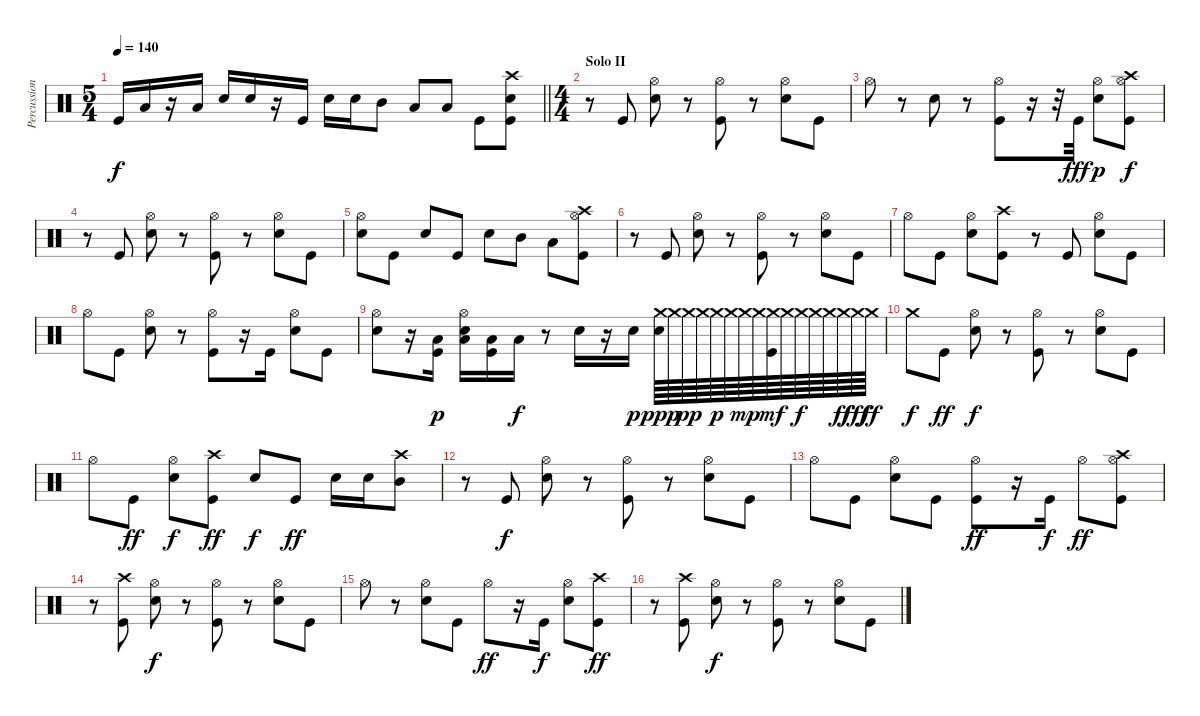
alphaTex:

\track ("Percussion" "Percussion") {instrument percussion}
\staff {score}
\articulation defaults
\ts (5 4)
\tempo 140
\clef neutral
\barLineRight lightlight
\ks c "Kick (hit)".16{dy f} "Low Tom (hit)".16
r.16 "Low Tom (hit)".16 "Snare (hit) 2".16 "Snare (hit) 2".16 r.16 "Kick (hit)".16 "Snare (hit) 2".16 "Snare (hit) 2".16 "Mid Tom (hit)".8 "Low Tom (hit)".8 "Low Floor Tom (hit)".8 "Kick (hit)".8 ("Crash high (hit)" "Snare (hit) 2" "Kick (hit)").8 |
\ts (4 4)
\section ("" "Solo II")
r.8 "Kick (hit)".8 ("Hi-Hat (open)" "Snare (hit) 2").8 r.8 ("Hi-Hat (open)" "Kick (hit)").8 r.8 ("Hi-Hat (open)" "Snare (hit) 2").8 "Kick (hit)".8 |
"Hi-Hat (open)".8 r.8 "Snare (hit) 2".8 r.8 ("Hi-Hat (open)" "Kick (hit)").8 r.16 r.32 "Kick (hit)".32{dy fff} ("Hi-Hat (open)" "Snare (hit) 2").8{dy p} ("Crash high (hit)" "Hi-Hat (open)" "Kick (hit)").8{dy f} |
r.8 "Kick (hit)".8 ("Hi-Hat (open)" "Snare (hit) 2").8 r.8 ("Hi-Hat (open)" "Kick (hit)").8 r.8 ("Hi-Hat (open)" "Snare (hit) 2").8 "Kick (hit)".8 |
("Hi-Hat (open)" "Snare (hit) 2").8 "Kick (hit)".8 "Snare (hit) 2".8 "Kick (hit)".8 "Snare (hit) 2".8 "Mid Tom (hit)".8 "Low Tom (hit)".8 ("Crash high (hit)" "Hi-Hat (open)" "Kick (hit)").8 |
r.8 "Kick (hit)".8 ("Hi-Hat (open)" "Snare (hit) 2").8 r.8 ("Hi-Hat (open)" "Kick (hit)").8 r.8 ("Hi-Hat (open)" "Snare (hit) 2").8 "Kick (hit)".8 |
"Hi-Hat (open)".8 "Kick (hit)".8 ("Hi-Hat (open)" "Snare (hit) 2").8 ("Crash high (hit)" "Kick (hit)").8 r.8 "Kick (hit)".8 ("Hi-Hat (open)" "Snare (hit) 2").8 "Kick (hit)".8 |
"Hi-Hat (open)".8 "Kick (hit)".8 ("Hi-Hat (open)" "Snare (hit) 2").8 r.8 ("Hi-Hat (open)" "Kick (hit)").8 r.16 "Kick (hit)".16 ("Hi-Hat (open)" "Snare (hit) 2").8 "Kick (hit)".8 |
("Hi-Hat (open)" "Snare (hit) 2").8 r.16 ("Low Tom (hit)" "Kick (hit)").16{dy p} ("Low Tom (hit)" "Hi-Hat (open)" "Snare (hit) 2").16 ("Low Tom (hit)" "Kick (hit)").16 "Low Tom (hit)".16{dy f} r.8 "Snare (hit) 2".16 r.16 "Snare (hit) 2".16{dy p} ("Crash medium (hit)" "Snare (hit) 2").64{dy ppp} "Crash medium (hit)".64 "Crash medium (hit)".64{dy pp} "Crash medium (hit)".64 "Crash medium (hit)".64{dy p} "Crash medium (hit)".64 "Crash medium (hit)".64{dy mp} "Crash medium (hit)".64 ("Crash medium (hit)" "Kick (hit)").64{dy mf} "Crash medium (hit)".64 "Crash medium (hit)".64{dy f} "Crash medium (hit)".64 "Crash medium (hit)".64 "Crash medium (hit)".64{dy ff} "Crash medium (hit)".64{dy fff} "Crash medium (hit)".64{dy ff} |
"Crash medium (hit)".8{dy f} "Kick (hit)".8{dy ff} ("Hi-Hat (open)" "Snare (hit) 2").8{dy f} r.8 ("Hi-Hat (open)" "Kick (hit)").8 r.8 ("Hi-Hat (open)" "Snare (hit) 2").8 "Kick (hit)".8 |
"Hi-Hat (open)".8 "Kick (hit)".8{dy ff} ("Hi-Hat (open)" "Snare (hit) 2").8{dy f} ("Crash high (hit)" "Kick (hit)").8{dy ff} "Snare (hit) 2".8{dy f} "Kick (hit)".8{dy ff} "Snare (hit) 2".16 "Snare (hit) 2".16 ("Crash high (hit)" "Mid Tom (hit)").8 |
r.8 "Kick (hit)".8{dy f} ("Hi-Hat (open)" "Snare (hit) 2").8 r.8 ("Hi-Hat (open)" "Kick (hit)").8 r.8 ("Hi-Hat (open)" "Snare (hit) 2").8 "Kick (hit)".8 |
"Hi-Hat (open)".8 "Kick (hit)".8 ("Hi-Hat (open)" "Snare (hit) 2").8 "Kick (hit)".8 ("Hi-Hat (open)" "Kick (hit)").8{dy ff} r.16 "Kick (hit)".16{dy f} "Hi-Hat (open)".8{dy ff} ("Crash high (hit)" "Hi-Hat (open)" "Kick (hit)").8 |
r.8 ("Crash high (hit)" "Kick (hit)").8 ("Hi-Hat (open)" "Snare (hit) 2").8{dy f} r.8 ("Hi-Hat (open)" "Kick (hit)").8 r.8 ("Hi-Hat (open)" "Snare (hit) 2").8 "Kick (hit)".8 |
"Hi-Hat (open)".8 r.8 ("Hi-Hat (open)" "Snare (hit) 2").8 "Kick (hit)".8 "Hi-Hat (open)".8{dy ff} r.16 "Kick (hit)".16{dy f} ("Hi-Hat (open)" "Snare (hit) 2").8 ("Crash high (hit)" "Kick (hit)").8{dy ff} |
r.8 ("Crash high (hit)" "Kick (hit)").8 ("Hi-Hat (open)" "Snare (hit) 2").8{dy f} r.8 ("Hi-Hat (open)" "Kick (hit)").8 r.8 ("Hi-Hat (open)" "Snare (hit) 2").8 "Kick (hit)".8
